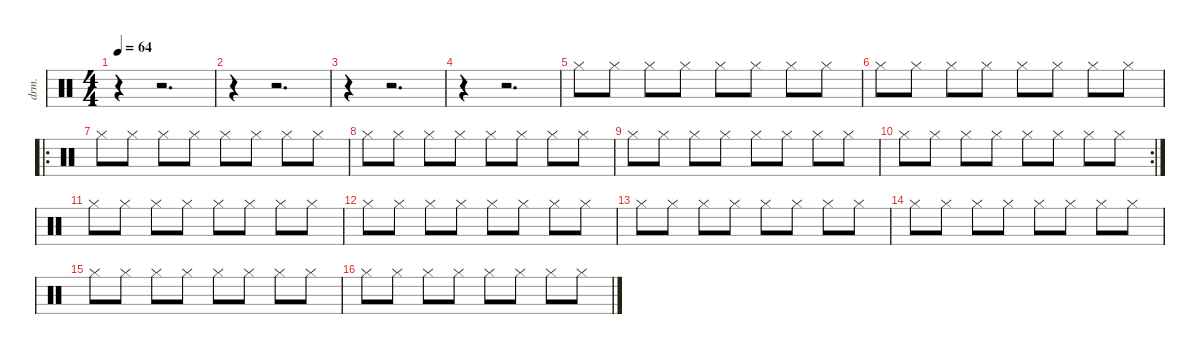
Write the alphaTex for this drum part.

\defaultSystemsLayout 4
\hideDynamics
\bracketExtendMode nobrackets
\otherSystemsTrackNameOrientation horizontal
\track ("hit" "drm.") {instrument percussion}
\staff {score}
\articulation defaults
\ts (4 4)
\beaming (8 2 2 2 2)
\tempo 64
\clef neutral
\ks c
r.4{dy f} r.2{d} |
r.4 r.2{d} |
r.4 r.2{d} |
r.4 r.2{d} |
"Hi-Hat (closed)".8 "Hi-Hat (closed)".8 "Hi-Hat (closed)".8 "Hi-Hat (closed)".8 "Hi-Hat (closed)".8 "Hi-Hat (closed)".8 "Hi-Hat (closed)".8 "Hi-Hat (closed)".8 |
"Hi-Hat (closed)".8 "Hi-Hat (closed)".8 "Hi-Hat (closed)".8 "Hi-Hat (closed)".8 "Hi-Hat (closed)".8 "Hi-Hat (closed)".8 "Hi-Hat (closed)".8 "Hi-Hat (closed)".8 |
\ro "Hi-Hat (closed)".8 "Hi-Hat (closed)".8 "Hi-Hat (closed)".8 "Hi-Hat (closed)".8 "Hi-Hat (closed)".8 "Hi-Hat (closed)".8 "Hi-Hat (closed)".8 "Hi-Hat (closed)".8
|
"Hi-Hat (closed)".8 "Hi-Hat (closed)".8 "Hi-Hat (closed)".8 "Hi-Hat (closed)".8 "Hi-Hat (closed)".8 "Hi-Hat (closed)".8 "Hi-Hat (closed)".8 "Hi-Hat (closed)".8 |
"Hi-Hat (closed)".8 "Hi-Hat (closed)".8 "Hi-Hat (closed)".8 "Hi-Hat (closed)".8 "Hi-Hat (closed)".8 "Hi-Hat (closed)".8 "Hi-Hat (closed)".8 "Hi-Hat (closed)".8 |
\rc 2 "Hi-Hat (closed)".8 "Hi-Hat (closed)".8 "Hi-Hat (closed)".8 "Hi-Hat (closed)".8 "Hi-Hat (closed)".8 "Hi-Hat (closed)".8 "Hi-Hat (closed)".8 "Hi-Hat (closed)".8
|
"Hi-Hat (closed)".8 "Hi-Hat (closed)".8 "Hi-Hat (closed)".8 "Hi-Hat (closed)".8 "Hi-Hat (closed)".8 "Hi-Hat (closed)".8 "Hi-Hat (closed)".8 "Hi-Hat (closed)".8 |
"Hi-Hat (closed)".8 "Hi-Hat (closed)".8 "Hi-Hat (closed)".8 "Hi-Hat (closed)".8 "Hi-Hat (closed)".8 "Hi-Hat (closed)".8 "Hi-Hat (closed)".8 "Hi-Hat (closed)".8 |
"Hi-Hat (closed)".8 "Hi-Hat (closed)".8 "Hi-Hat (closed)".8 "Hi-Hat (closed)".8 "Hi-Hat (closed)".8 "Hi-Hat (closed)".8 "Hi-Hat (closed)".8 "Hi-Hat (closed)".8 |
"Hi-Hat (closed)".8 "Hi-Hat (closed)".8 "Hi-Hat (closed)".8 "Hi-Hat (closed)".8 "Hi-Hat (closed)".8 "Hi-Hat (closed)".8 "Hi-Hat (closed)".8 "Hi-Hat (closed)".8 |
"Hi-Hat (closed)".8 "Hi-Hat (closed)".8 "Hi-Hat (closed)".8 "Hi-Hat (closed)".8 "Hi-Hat (closed)".8 "Hi-Hat (closed)".8 "Hi-Hat (closed)".8 "Hi-Hat (closed)".8 |
"Hi-Hat (closed)".8 "Hi-Hat (closed)".8 "Hi-Hat (closed)".8 "Hi-Hat (closed)".8 "Hi-Hat (closed)".8 "Hi-Hat (closed)".8 "Hi-Hat (closed)".8 "Hi-Hat (closed)".8
